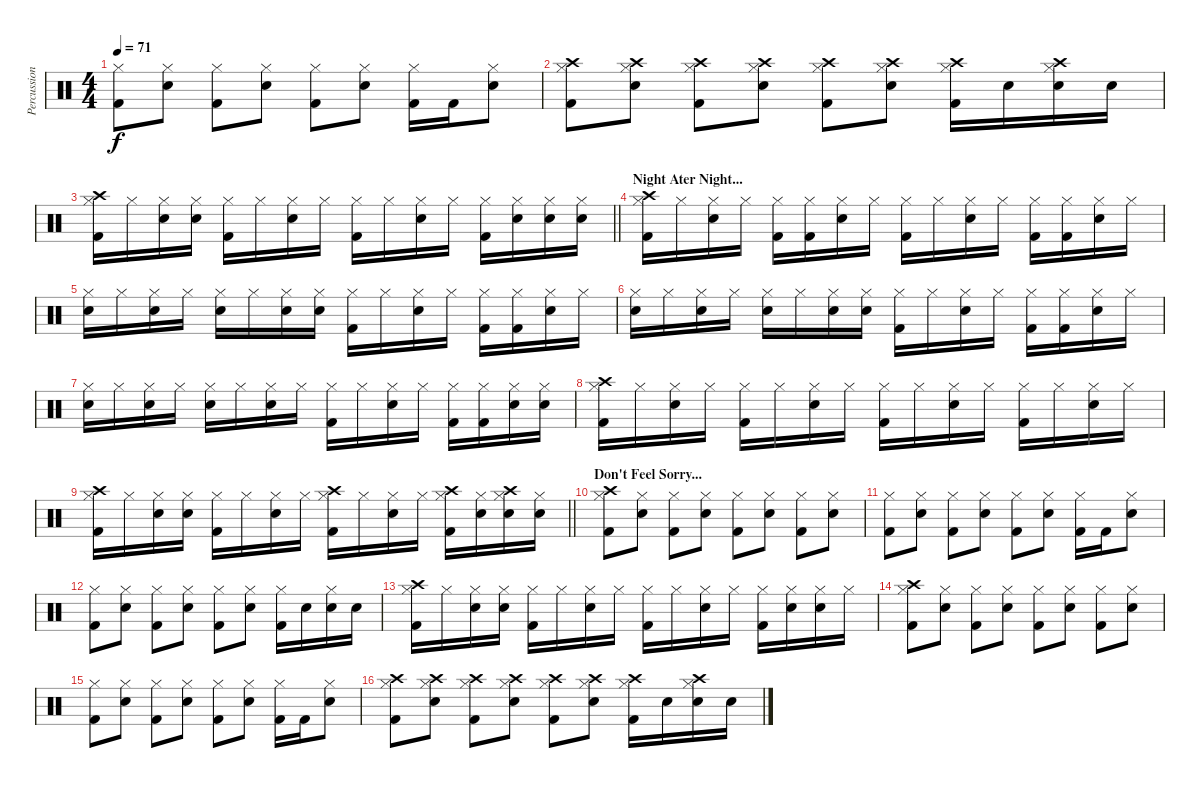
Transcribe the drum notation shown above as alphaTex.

\track ("Percussion" "Percussion") {instrument percussion}
\staff {score}
\articulation defaults
\ts (4 4)
\tempo 71
\clef neutral
\ks c
("Kick (hit) 2" "Hi-Hat (closed)").8{dy f} ("Snare (hit) 2" "Hi-Hat (closed)").8 ("Kick (hit) 2" "Hi-Hat (closed)").8 ("Snare (hit) 2" "Hi-Hat (closed)").8 ("Kick (hit) 2" "Hi-Hat (closed)").8 ("Snare (hit) 2" "Hi-Hat (closed)").8 ("Kick (hit) 2" "Hi-Hat (closed)").16 "Kick (hit) 2".16 ("Snare (hit) 2" "Hi-Hat (closed)").8 |
("Crash high (hit)" "Kick (hit) 2" "Hi-Hat (closed)").8 ("Crash high (hit)" "Snare (hit) 2" "Hi-Hat (closed)").8 ("Crash high (hit)" "Kick (hit) 2" "Hi-Hat (closed)").8 ("Crash high (hit)" "Snare (hit) 2" "Hi-Hat (closed)").8 ("Crash high (hit)" "Kick (hit) 2" "Hi-Hat (closed)").8 ("Crash high (hit)" "Snare (hit) 2" "Hi-Hat (closed)").8 ("Crash high (hit)" "Kick (hit) 2" "Hi-Hat (closed)").16 "Snare (hit) 2".16 ("Crash high (hit)" "Snare (hit) 2" "Hi-Hat (closed)").16 "Snare (hit) 2".16 |
\barLineRight lightlight
("Crash high (hit)" "Hi-Hat (closed)" "Kick (hit) 2").16 "Hi-Hat (closed)".16 ("Hi-Hat (closed)" "Snare (hit) 2").16 ("Hi-Hat (closed)" "Snare (hit) 2").16 ("Hi-Hat (closed)" "Kick (hit) 2").16 "Hi-Hat (closed)".16 ("Hi-Hat (closed)" "Snare (hit) 2").16 "Hi-Hat (closed)".16 ("Hi-Hat (closed)" "Kick (hit) 2").16 "Hi-Hat (closed)".16 ("Hi-Hat (closed)" "Snare (hit) 2").16 "Hi-Hat (closed)".16 ("Hi-Hat (closed)" "Kick (hit) 2").16 ("Hi-Hat (closed)" "Snare (hit) 2").16 ("Hi-Hat (closed)" "Snare (hit) 2").16 ("Hi-Hat (closed)" "Snare (hit) 2").16 |
\section ("" "Night Ater Night...")
("Crash high (hit)" "Hi-Hat (closed)" "Kick (hit) 2").16 "Hi-Hat (closed)".16 ("Hi-Hat (closed)" "Snare (hit) 2").16 "Hi-Hat (closed)".16 ("Hi-Hat (closed)" "Kick (hit) 2").16 ("Hi-Hat (closed)" "Kick (hit) 2").16 ("Hi-Hat (closed)" "Snare (hit) 2").16 "Hi-Hat (closed)".16 ("Hi-Hat (closed)" "Kick (hit) 2").16 "Hi-Hat (closed)".16 ("Hi-Hat (closed)" "Snare (hit) 2").16 "Hi-Hat (closed)".16 ("Hi-Hat (closed)" "Kick (hit) 2").16 ("Hi-Hat (closed)" "Kick (hit) 2").16 ("Hi-Hat (closed)" "Snare (hit) 2").16 "Hi-Hat (closed)".16 |
("Hi-Hat (closed)" "Snare (hit) 2").16 "Hi-Hat (closed)".16 ("Hi-Hat (closed)" "Snare (hit) 2").16 "Hi-Hat (closed)".16 ("Hi-Hat (closed)" "Snare (hit) 2").16 "Hi-Hat (closed)".16 ("Hi-Hat (closed)" "Snare (hit) 2").16 ("Hi-Hat (closed)" "Snare (hit) 2").16 ("Hi-Hat (closed)" "Kick (hit) 2").16 "Hi-Hat (closed)".16 ("Hi-Hat (closed)" "Snare (hit) 2").16 "Hi-Hat (closed)".16 ("Hi-Hat (closed)" "Kick (hit) 2").16 ("Hi-Hat (closed)" "Kick (hit) 2").16 ("Hi-Hat (closed)" "Snare (hit) 2").16 "Hi-Hat (closed)".16 |
("Hi-Hat (closed)" "Snare (hit) 2").16 "Hi-Hat (closed)".16 ("Hi-Hat (closed)" "Snare (hit) 2").16 "Hi-Hat (closed)".16 ("Hi-Hat (closed)" "Snare (hit) 2").16 "Hi-Hat (closed)".16 ("Hi-Hat (closed)" "Snare (hit) 2").16 ("Hi-Hat (closed)" "Snare (hit) 2").16 ("Hi-Hat (closed)" "Kick (hit) 2").16 "Hi-Hat (closed)".16 ("Hi-Hat (closed)" "Snare (hit) 2").16 "Hi-Hat (closed)".16 ("Hi-Hat (closed)" "Kick (hit) 2").16 ("Hi-Hat (closed)" "Kick (hit) 2").16 ("Hi-Hat (closed)" "Snare (hit) 2").16 "Hi-Hat (closed)".16 |
("Hi-Hat (closed)" "Snare (hit) 2").16 "Hi-Hat (closed)".16 ("Hi-Hat (closed)" "Snare (hit) 2").16 "Hi-Hat (closed)".16 ("Hi-Hat (closed)" "Snare (hit) 2").16 "Hi-Hat (closed)".16 ("Hi-Hat (closed)" "Snare (hit) 2").16 "Hi-Hat (closed)".16 ("Hi-Hat (closed)" "Kick (hit) 2").16 "Hi-Hat (closed)".16 ("Hi-Hat (closed)" "Snare (hit) 2").16 "Hi-Hat (closed)".16 ("Hi-Hat (closed)" "Kick (hit) 2").16 ("Hi-Hat (closed)" "Kick (hit) 2").16 ("Hi-Hat (closed)" "Snare (hit) 2").16 ("Hi-Hat (closed)" "Snare (hit) 2").16 |
("Crash high (hit)" "Hi-Hat (closed)" "Kick (hit) 2").16 "Hi-Hat (closed)".16 ("Hi-Hat (closed)" "Snare (hit) 2").16 "Hi-Hat (closed)".16 ("Hi-Hat (closed)" "Kick (hit) 2").16 "Hi-Hat (closed)".16 ("Hi-Hat (closed)" "Snare (hit) 2").16 "Hi-Hat (closed)".16 ("Hi-Hat (closed)" "Kick (hit) 2").16 "Hi-Hat (closed)".16 ("Hi-Hat (closed)" "Snare (hit) 2").16 "Hi-Hat (closed)".16 ("Hi-Hat (closed)" "Kick (hit) 2").16 "Hi-Hat (closed)".16 ("Hi-Hat (closed)" "Snare (hit) 2").16 "Hi-Hat (closed)".16 |
\barLineRight lightlight
("Crash high (hit)" "Hi-Hat (closed)" "Kick (hit) 2").16 "Hi-Hat (closed)".16 ("Hi-Hat (closed)" "Snare (hit) 2").16 ("Hi-Hat (closed)" "Snare (hit) 2").16 ("Hi-Hat (closed)" "Kick (hit) 2").16 "Hi-Hat (closed)".16 ("Hi-Hat (closed)" "Snare (hit) 2").16 "Hi-Hat (closed)".16 ("Crash high (hit)" "Hi-Hat (closed)" "Kick (hit) 2").16 "Hi-Hat (closed)".16 ("Hi-Hat (closed)" "Snare (hit) 2").16 "Hi-Hat (closed)".16 ("Crash high (hit)" "Hi-Hat (closed)" "Kick (hit) 2").16 ("Hi-Hat (closed)" "Snare (hit) 2").16 ("Crash high (hit)" "Hi-Hat (closed)" "Snare (hit) 2").16 ("Hi-Hat (closed)" "Snare (hit) 2").16 |
\section ("" "Don't Feel Sorry...")
("Crash high (hit)" "Kick (hit) 2" "Hi-Hat (closed)").8 ("Snare (hit) 2" "Hi-Hat (closed)").8 ("Kick (hit) 2" "Hi-Hat (closed)").8 ("Snare (hit) 2" "Hi-Hat (closed)").8 ("Kick (hit) 2" "Hi-Hat (closed)").8 ("Snare (hit) 2" "Hi-Hat (closed)").8 ("Kick (hit) 2" "Hi-Hat (closed)").8 ("Snare (hit) 2" "Hi-Hat (closed)").8 |
("Kick (hit) 2" "Hi-Hat (closed)").8 ("Snare (hit) 2" "Hi-Hat (closed)").8 ("Kick (hit) 2" "Hi-Hat (closed)").8 ("Snare (hit) 2" "Hi-Hat (closed)").8 ("Kick (hit) 2" "Hi-Hat (closed)").8 ("Snare (hit) 2" "Hi-Hat (closed)").8 ("Kick (hit) 2" "Hi-Hat (closed)").16 "Kick (hit) 2".16 ("Snare (hit) 2" "Hi-Hat (closed)").8 |
("Kick (hit) 2" "Hi-Hat (closed)").8 ("Snare (hit) 2" "Hi-Hat (closed)").8 ("Kick (hit) 2" "Hi-Hat (closed)").8 ("Snare (hit) 2" "Hi-Hat (closed)").8 ("Kick (hit) 2" "Hi-Hat (closed)").8 ("Snare (hit) 2" "Hi-Hat (closed)").8 ("Kick (hit) 2" "Hi-Hat (closed)").16 "Snare (hit) 2".16 ("Snare (hit) 2" "Hi-Hat (closed)").16 "Snare (hit) 2".16 |
("Crash high (hit)" "Hi-Hat (closed)" "Kick (hit) 2").16 "Hi-Hat (closed)".16 ("Hi-Hat (closed)" "Snare (hit) 2").16 ("Hi-Hat (closed)" "Snare (hit) 2").16 ("Hi-Hat (closed)" "Kick (hit) 2").16 "Hi-Hat (closed)".16 ("Hi-Hat (closed)" "Snare (hit) 2").16 "Hi-Hat (closed)".16 ("Hi-Hat (closed)" "Kick (hit) 2").16 "Hi-Hat (closed)".16 ("Hi-Hat (closed)" "Snare (hit) 2").16 "Hi-Hat (closed)".16 ("Hi-Hat (closed)" "Kick (hit) 2").16 ("Hi-Hat (closed)" "Snare (hit) 2").16 ("Hi-Hat (closed)" "Snare (hit) 2").16 "Hi-Hat (closed)".16 |
("Crash high (hit)" "Kick (hit) 2" "Hi-Hat (closed)").8 ("Snare (hit) 2" "Hi-Hat (closed)").8 ("Kick (hit) 2" "Hi-Hat (closed)").8 ("Snare (hit) 2" "Hi-Hat (closed)").8 ("Kick (hit) 2" "Hi-Hat (closed)").8 ("Snare (hit) 2" "Hi-Hat (closed)").8 ("Kick (hit) 2" "Hi-Hat (closed)").8 ("Snare (hit) 2" "Hi-Hat (closed)").8 |
("Kick (hit) 2" "Hi-Hat (closed)").8 ("Snare (hit) 2" "Hi-Hat (closed)").8 ("Kick (hit) 2" "Hi-Hat (closed)").8 ("Snare (hit) 2" "Hi-Hat (closed)").8 ("Kick (hit) 2" "Hi-Hat (closed)").8 ("Snare (hit) 2" "Hi-Hat (closed)").8 ("Kick (hit) 2" "Hi-Hat (closed)").16 "Kick (hit) 2".16 ("Snare (hit) 2" "Hi-Hat (closed)").8 |
("Crash high (hit)" "Kick (hit) 2" "Hi-Hat (closed)").8 ("Crash high (hit)" "Snare (hit) 2" "Hi-Hat (closed)").8 ("Crash high (hit)" "Kick (hit) 2" "Hi-Hat (closed)").8 ("Crash high (hit)" "Snare (hit) 2" "Hi-Hat (closed)").8 ("Crash high (hit)" "Kick (hit) 2" "Hi-Hat (closed)").8 ("Crash high (hit)" "Snare (hit) 2" "Hi-Hat (closed)").8 ("Crash high (hit)" "Kick (hit) 2" "Hi-Hat (closed)").16 "Snare (hit) 2".16 ("Crash high (hit)" "Snare (hit) 2" "Hi-Hat (closed)").16 "Snare (hit) 2".16
